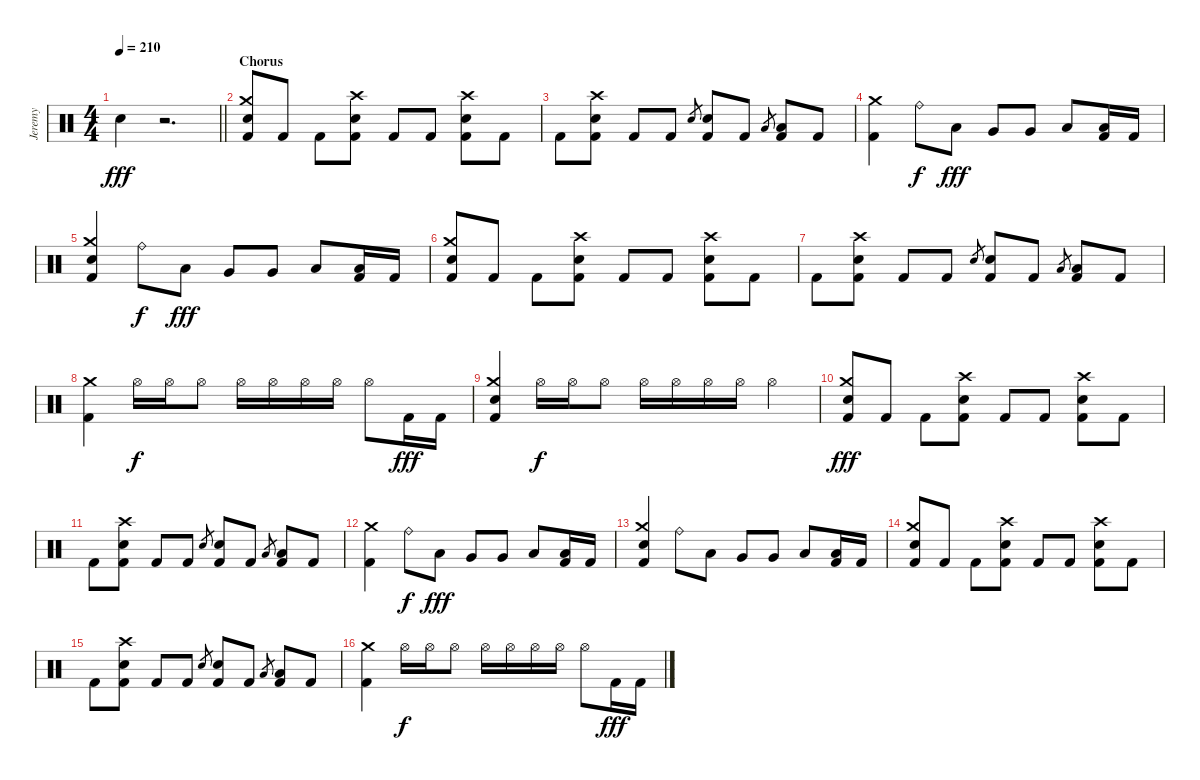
\track ("Jeremy" "Jeremy") {instrument percussion}
\staff {score}
\articulation defaults
\ts (4 4)
\tempo 210
\clef neutral
\barLineRight lightlight
\ks c "Electric Snare (hit)".4{dy fff}
r.2{d} |
\section ("" "Chorus")
("Crash medium (hit)" "Electric Snare (hit)" "Kick (hit) 2").8 "Kick (hit) 2".8 "Kick (hit) 2".8 ("Crash high (hit)" "Electric Snare (hit)" "Kick (hit) 2").8 "Kick (hit) 2".8 "Kick (hit) 2".8 ("Crash high (hit)" "Electric Snare (hit)" "Kick (hit) 2").8 "Kick (hit) 2".8 |
"Kick (hit) 2".8 ("Crash high (hit)" "Electric Snare (hit)" "Kick (hit) 2").8 "Kick (hit) 2".8 "Kick (hit) 2".8 "Electric Snare (hit)".8{gr} ("Electric Snare (hit)" "Kick (hit) 2").8 "Kick (hit) 2".8 "Low Tom (hit)".8{gr} ("Low Tom (hit)" "Kick (hit) 2").8 "Kick (hit) 2".8 |
("Crash medium (hit)" "Kick (hit) 2").4 "Ride (bell)".8{dy f} "Low Tom (hit)".8{dy fff} "Very Low Tom (hit)".8 "Very Low Tom (hit)".8 "Low Floor Tom (hit)".8 ("Low Floor Tom (hit)" "Kick (hit) 2").16 "Kick (hit) 2".16 |
("Crash medium (hit)" "Electric Snare (hit)" "Kick (hit) 2").4 "Ride (bell)".8{dy f} "Low Tom (hit)".8{dy fff} "Very Low Tom (hit)".8 "Very Low Tom (hit)".8 "Low Floor Tom (hit)".8 ("Low Floor Tom (hit)" "Kick (hit) 2").16 "Kick (hit) 2".16 |
("Crash medium (hit)" "Electric Snare (hit)" "Kick (hit) 2").8 "Kick (hit) 2".8 "Kick (hit) 2".8 ("Crash high (hit)" "Electric Snare (hit)" "Kick (hit) 2").8 "Kick (hit) 2".8 "Kick (hit) 2".8 ("Crash high (hit)" "Electric Snare (hit)" "Kick (hit) 2").8 "Kick (hit) 2".8 |
"Kick (hit) 2".8 ("Crash high (hit)" "Electric Snare (hit)" "Kick (hit) 2").8 "Kick (hit) 2".8 "Kick (hit) 2".8 "Electric Snare (hit)".8{gr} ("Electric Snare (hit)" "Kick (hit) 2").8 "Kick (hit) 2".8 "Low Tom (hit)".8{gr} ("Low Tom (hit)" "Kick (hit) 2").8 "Kick (hit) 2".8 |
("Crash medium (hit)" "Kick (hit) 2").4 "Hi-Hat (open)".16{dy f} "Hi-Hat (open)".16 "Hi-Hat (open)".8 "Hi-Hat (open)".16 "Hi-Hat (open)".16 "Hi-Hat (open)".16 "Hi-Hat (open)".16 "Hi-Hat (open)".8 "Kick (hit) 2".16{dy fff} "Kick (hit) 2".16 |
("Crash medium (hit)" "Electric Snare (hit)" "Kick (hit) 2").4 "Hi-Hat (open)".16{dy f} "Hi-Hat (open)".16 "Hi-Hat (open)".8 "Hi-Hat (open)".16 "Hi-Hat (open)".16 "Hi-Hat (open)".16 "Hi-Hat (open)".16 "Hi-Hat (open)".4 |
("Crash medium (hit)" "Electric Snare (hit)" "Kick (hit) 2").8{dy fff} "Kick (hit) 2".8 "Kick (hit) 2".8 ("Crash high (hit)" "Electric Snare (hit)" "Kick (hit) 2").8 "Kick (hit) 2".8 "Kick (hit) 2".8 ("Crash high (hit)" "Electric Snare (hit)" "Kick (hit) 2").8 "Kick (hit) 2".8 |
"Kick (hit) 2".8 ("Crash high (hit)" "Electric Snare (hit)" "Kick (hit) 2").8 "Kick (hit) 2".8 "Kick (hit) 2".8 "Electric Snare (hit)".8{gr} ("Electric Snare (hit)" "Kick (hit) 2").8 "Kick (hit) 2".8 "Low Tom (hit)".8{gr} ("Low Tom (hit)" "Kick (hit) 2").8 "Kick (hit) 2".8 |
("Crash medium (hit)" "Kick (hit) 2").4 "Ride (bell)".8{dy f} "Low Tom (hit)".8{dy fff} "Very Low Tom (hit)".8 "Very Low Tom (hit)".8 "Low Floor Tom (hit)".8 ("Low Floor Tom (hit)" "Kick (hit) 2").16 "Kick (hit) 2".16 |
("Crash medium (hit)" "Electric Snare (hit)" "Kick (hit) 2").4 "Ride (bell)".8 "Low Tom (hit)".8 "Very Low Tom (hit)".8 "Very Low Tom (hit)".8 "Low Floor Tom (hit)".8 ("Low Floor Tom (hit)" "Kick (hit) 2").16 "Kick (hit) 2".16 |
("Crash medium (hit)" "Electric Snare (hit)" "Kick (hit) 2").8 "Kick (hit) 2".8 "Kick (hit) 2".8 ("Crash high (hit)" "Electric Snare (hit)" "Kick (hit) 2").8 "Kick (hit) 2".8 "Kick (hit) 2".8 ("Crash high (hit)" "Electric Snare (hit)" "Kick (hit) 2").8 "Kick (hit) 2".8 |
"Kick (hit) 2".8 ("Crash high (hit)" "Electric Snare (hit)" "Kick (hit) 2").8 "Kick (hit) 2".8 "Kick (hit) 2".8 "Electric Snare (hit)".8{gr} ("Electric Snare (hit)" "Kick (hit) 2").8 "Kick (hit) 2".8 "Low Tom (hit)".8{gr} ("Low Tom (hit)" "Kick (hit) 2").8 "Kick (hit) 2".8 |
("Crash medium (hit)" "Kick (hit) 2").4 "Hi-Hat (open)".16{dy f} "Hi-Hat (open)".16 "Hi-Hat (open)".8 "Hi-Hat (open)".16 "Hi-Hat (open)".16 "Hi-Hat (open)".16 "Hi-Hat (open)".16 "Hi-Hat (open)".8 "Kick (hit) 2".16{dy fff} "Kick (hit) 2".16
